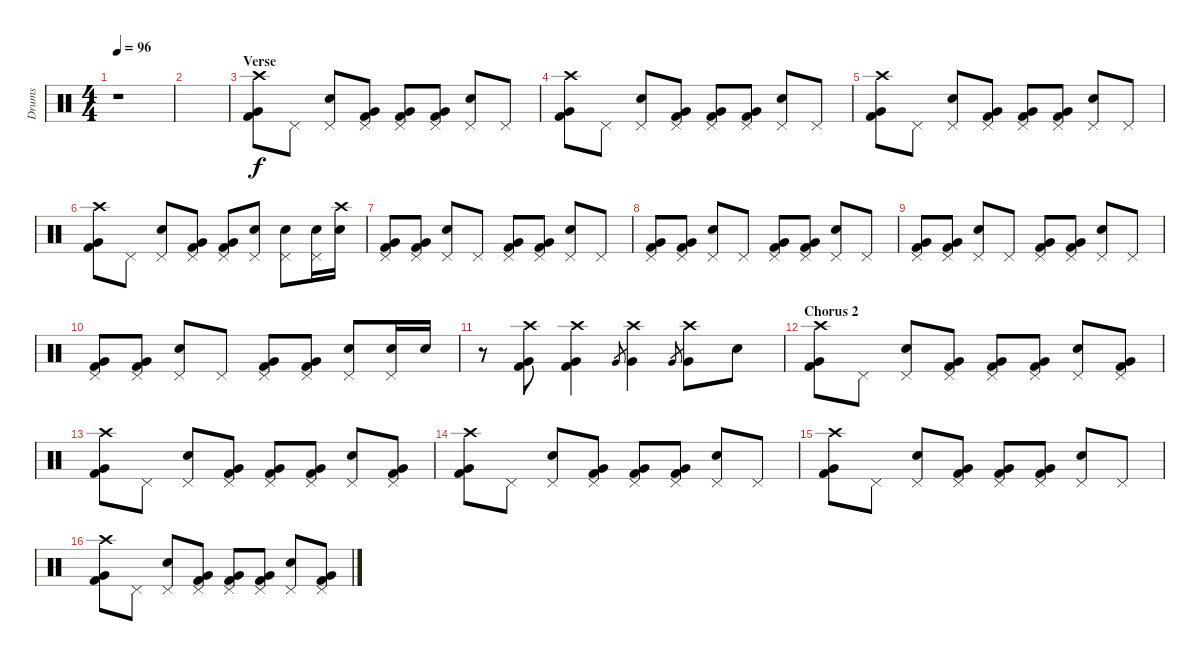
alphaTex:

\track ("Drums" "Drums") {instrument percussion}
\staff {score}
\articulation defaults
\ts (4 4)
\tempo 96
\clef neutral
\ks c
r.1{dy f} |
|
\section ("" "Verse")
("Crash high (hit)" "Very Low Tom (hit)" "Kick (hit) 2").8 "Pedal Hi-Hat (hit)".8 ("Pedal Hi-Hat (hit)" "Electric Snare (hit)").8 ("Pedal Hi-Hat (hit)" "Very Low Tom (hit)" "Kick (hit) 2").8 ("Pedal Hi-Hat (hit)" "Very Low Tom (hit)" "Kick (hit) 2").8 ("Pedal Hi-Hat (hit)" "Very Low Tom (hit)" "Kick (hit) 2").8 ("Pedal Hi-Hat (hit)" "Electric Snare (hit)").8 "Pedal Hi-Hat (hit)".8 |
("Crash high (hit)" "Very Low Tom (hit)" "Kick (hit) 2").8 "Pedal Hi-Hat (hit)".8 ("Pedal Hi-Hat (hit)" "Electric Snare (hit)").8 ("Pedal Hi-Hat (hit)" "Very Low Tom (hit)" "Kick (hit) 2").8 ("Pedal Hi-Hat (hit)" "Very Low Tom (hit)" "Kick (hit) 2").8 ("Pedal Hi-Hat (hit)" "Very Low Tom (hit)" "Kick (hit) 2").8 ("Pedal Hi-Hat (hit)" "Electric Snare (hit)").8 "Pedal Hi-Hat (hit)".8 |
("Crash high (hit)" "Very Low Tom (hit)" "Kick (hit) 2").8 "Pedal Hi-Hat (hit)".8 ("Pedal Hi-Hat (hit)" "Electric Snare (hit)").8 ("Pedal Hi-Hat (hit)" "Very Low Tom (hit)" "Kick (hit) 2").8 ("Pedal Hi-Hat (hit)" "Very Low Tom (hit)" "Kick (hit) 2").8 ("Pedal Hi-Hat (hit)" "Very Low Tom (hit)" "Kick (hit) 2").8 ("Pedal Hi-Hat (hit)" "Electric Snare (hit)").8 "Pedal Hi-Hat (hit)".8 |
("Crash high (hit)" "Very Low Tom (hit)" "Kick (hit) 2").8 "Pedal Hi-Hat (hit)".8 ("Pedal Hi-Hat (hit)" "Electric Snare (hit)").8 ("Pedal Hi-Hat (hit)" "Very Low Tom (hit)" "Kick (hit) 2").8 ("Pedal Hi-Hat (hit)" "Very Low Tom (hit)" "Kick (hit) 2").8 ("Pedal Hi-Hat (hit)" "Electric Snare (hit)").8 ("Pedal Hi-Hat (hit)" "Electric Snare (hit)").8 ("Pedal Hi-Hat (hit)" "Electric Snare (hit)").16 ("Crash high (hit)" "Electric Snare (hit)").16 |
("Pedal Hi-Hat (hit)" "Very Low Tom (hit)" "Kick (hit) 2").8 ("Pedal Hi-Hat (hit)" "Very Low Tom (hit)" "Kick (hit) 2").8 ("Pedal Hi-Hat (hit)" "Electric Snare (hit)").8 "Pedal Hi-Hat (hit)".8 ("Pedal Hi-Hat (hit)" "Very Low Tom (hit)" "Kick (hit) 2").8 ("Pedal Hi-Hat (hit)" "Very Low Tom (hit)" "Kick (hit) 2").8 ("Pedal Hi-Hat (hit)" "Electric Snare (hit)").8 "Pedal Hi-Hat (hit)".8 |
("Pedal Hi-Hat (hit)" "Very Low Tom (hit)" "Kick (hit) 2").8 ("Pedal Hi-Hat (hit)" "Very Low Tom (hit)" "Kick (hit) 2").8 ("Pedal Hi-Hat (hit)" "Electric Snare (hit)").8 "Pedal Hi-Hat (hit)".8 ("Pedal Hi-Hat (hit)" "Very Low Tom (hit)" "Kick (hit) 2").8 ("Pedal Hi-Hat (hit)" "Very Low Tom (hit)" "Kick (hit) 2").8 ("Pedal Hi-Hat (hit)" "Electric Snare (hit)").8 "Pedal Hi-Hat (hit)".8 |
("Pedal Hi-Hat (hit)" "Very Low Tom (hit)" "Kick (hit) 2").8 ("Pedal Hi-Hat (hit)" "Very Low Tom (hit)" "Kick (hit) 2").8 ("Pedal Hi-Hat (hit)" "Electric Snare (hit)").8 "Pedal Hi-Hat (hit)".8 ("Pedal Hi-Hat (hit)" "Very Low Tom (hit)" "Kick (hit) 2").8 ("Pedal Hi-Hat (hit)" "Very Low Tom (hit)" "Kick (hit) 2").8 ("Pedal Hi-Hat (hit)" "Electric Snare (hit)").8 "Pedal Hi-Hat (hit)".8 |
("Pedal Hi-Hat (hit)" "Very Low Tom (hit)" "Kick (hit) 2").8 ("Pedal Hi-Hat (hit)" "Very Low Tom (hit)" "Kick (hit) 2").8 ("Pedal Hi-Hat (hit)" "Electric Snare (hit)").8 "Pedal Hi-Hat (hit)".8 ("Pedal Hi-Hat (hit)" "Very Low Tom (hit)" "Kick (hit) 2").8 ("Pedal Hi-Hat (hit)" "Very Low Tom (hit)" "Kick (hit) 2").8 ("Pedal Hi-Hat (hit)" "Electric Snare (hit)").8 ("Pedal Hi-Hat (hit)" "Electric Snare (hit)").16 "Electric Snare (hit)".16 |
r.8 ("Crash high (hit)" "Very Low Tom (hit)" "Kick (hit) 2").8 ("Crash high (hit)" "Very Low Tom (hit)" "Kick (hit) 2").4 "Very Low Tom (hit)".8{gr} ("Crash high (hit)" "Very Low Tom (hit)").4 "Very Low Tom (hit)".8{gr} ("Crash high (hit)" "Very Low Tom (hit)").8 "Electric Snare (hit)".8 |
\section ("" "Chorus 2")
("Crash high (hit)" "Very Low Tom (hit)" "Kick (hit) 2").8 "Pedal Hi-Hat (hit)".8 ("Pedal Hi-Hat (hit)" "Electric Snare (hit)").8 ("Pedal Hi-Hat (hit)" "Very Low Tom (hit)" "Kick (hit) 2").8 ("Pedal Hi-Hat (hit)" "Very Low Tom (hit)" "Kick (hit) 2").8 ("Pedal Hi-Hat (hit)" "Very Low Tom (hit)" "Kick (hit) 2").8 ("Pedal Hi-Hat (hit)" "Electric Snare (hit)").8 ("Pedal Hi-Hat (hit)" "Very Low Tom (hit)" "Kick (hit) 2").8 |
("Crash high (hit)" "Very Low Tom (hit)" "Kick (hit) 2").8 "Pedal Hi-Hat (hit)".8 ("Pedal Hi-Hat (hit)" "Electric Snare (hit)").8 ("Pedal Hi-Hat (hit)" "Very Low Tom (hit)" "Kick (hit) 2").8 ("Pedal Hi-Hat (hit)" "Very Low Tom (hit)" "Kick (hit) 2").8 ("Pedal Hi-Hat (hit)" "Very Low Tom (hit)" "Kick (hit) 2").8 ("Pedal Hi-Hat (hit)" "Electric Snare (hit)").8 ("Pedal Hi-Hat (hit)" "Very Low Tom (hit)" "Kick (hit) 2").8 |
("Crash high (hit)" "Very Low Tom (hit)" "Kick (hit) 2").8 "Pedal Hi-Hat (hit)".8 ("Pedal Hi-Hat (hit)" "Electric Snare (hit)").8 ("Pedal Hi-Hat (hit)" "Very Low Tom (hit)" "Kick (hit) 2").8 ("Pedal Hi-Hat (hit)" "Very Low Tom (hit)" "Kick (hit) 2").8 ("Pedal Hi-Hat (hit)" "Very Low Tom (hit)" "Kick (hit) 2").8 ("Pedal Hi-Hat (hit)" "Electric Snare (hit)").8 "Pedal Hi-Hat (hit)".8 |
("Crash high (hit)" "Very Low Tom (hit)" "Kick (hit) 2").8 "Pedal Hi-Hat (hit)".8 ("Pedal Hi-Hat (hit)" "Electric Snare (hit)").8 ("Pedal Hi-Hat (hit)" "Very Low Tom (hit)" "Kick (hit) 2").8 ("Pedal Hi-Hat (hit)" "Very Low Tom (hit)" "Kick (hit) 2").8 ("Pedal Hi-Hat (hit)" "Very Low Tom (hit)" "Kick (hit) 2").8 ("Pedal Hi-Hat (hit)" "Electric Snare (hit)").8 "Pedal Hi-Hat (hit)".8 |
("Crash high (hit)" "Very Low Tom (hit)" "Kick (hit) 2").8 "Pedal Hi-Hat (hit)".8 ("Pedal Hi-Hat (hit)" "Electric Snare (hit)").8 ("Pedal Hi-Hat (hit)" "Very Low Tom (hit)" "Kick (hit) 2").8 ("Pedal Hi-Hat (hit)" "Very Low Tom (hit)" "Kick (hit) 2").8 ("Pedal Hi-Hat (hit)" "Very Low Tom (hit)" "Kick (hit) 2").8 ("Pedal Hi-Hat (hit)" "Electric Snare (hit)").8 ("Pedal Hi-Hat (hit)" "Very Low Tom (hit)" "Kick (hit) 2").8
